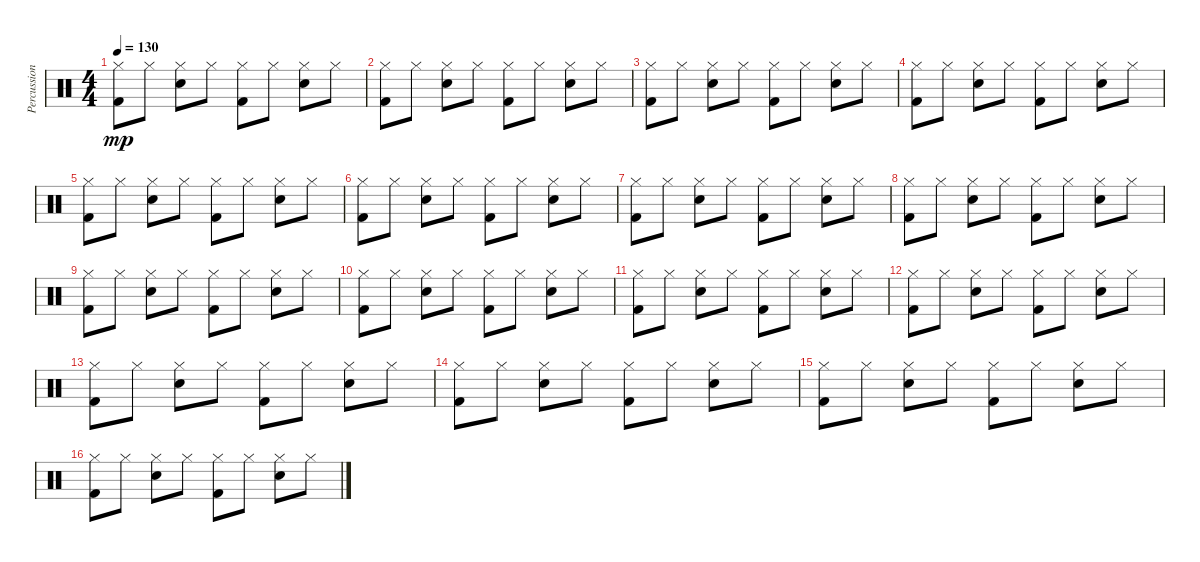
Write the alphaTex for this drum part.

\track ("Percussion" "Percussion") {instrument percussion}
\staff {score}
\articulation defaults
\ts (4 4)
\tempo 130
\clef neutral
\ks c
("Hi-Hat (closed)" "Kick (hit) 2").8{dy mp} "Hi-Hat (closed)".8 ("Hi-Hat (closed)" "Snare (hit) 2").8 "Hi-Hat (closed)".8 ("Hi-Hat (closed)" "Kick (hit) 2").8 "Hi-Hat (closed)".8 ("Hi-Hat (closed)" "Snare (hit) 2").8 "Hi-Hat (closed)".8 |
("Hi-Hat (closed)" "Kick (hit) 2").8 "Hi-Hat (closed)".8 ("Hi-Hat (closed)" "Snare (hit) 2").8 "Hi-Hat (closed)".8 ("Hi-Hat (closed)" "Kick (hit) 2").8 "Hi-Hat (closed)".8 ("Hi-Hat (closed)" "Snare (hit) 2").8 "Hi-Hat (closed)".8 |
("Hi-Hat (closed)" "Kick (hit) 2").8 "Hi-Hat (closed)".8 ("Hi-Hat (closed)" "Snare (hit) 2").8 "Hi-Hat (closed)".8 ("Hi-Hat (closed)" "Kick (hit) 2").8 "Hi-Hat (closed)".8 ("Hi-Hat (closed)" "Snare (hit) 2").8 "Hi-Hat (closed)".8 |
("Hi-Hat (closed)" "Kick (hit) 2").8 "Hi-Hat (closed)".8 ("Hi-Hat (closed)" "Snare (hit) 2").8 "Hi-Hat (closed)".8 ("Hi-Hat (closed)" "Kick (hit) 2").8 "Hi-Hat (closed)".8 ("Hi-Hat (closed)" "Snare (hit) 2").8 "Hi-Hat (closed)".8 |
("Hi-Hat (closed)" "Kick (hit) 2").8 "Hi-Hat (closed)".8 ("Hi-Hat (closed)" "Snare (hit) 2").8 "Hi-Hat (closed)".8 ("Hi-Hat (closed)" "Kick (hit) 2").8 "Hi-Hat (closed)".8 ("Hi-Hat (closed)" "Snare (hit) 2").8 "Hi-Hat (closed)".8 |
("Hi-Hat (closed)" "Kick (hit) 2").8 "Hi-Hat (closed)".8 ("Hi-Hat (closed)" "Snare (hit) 2").8 "Hi-Hat (closed)".8 ("Hi-Hat (closed)" "Kick (hit) 2").8 "Hi-Hat (closed)".8 ("Hi-Hat (closed)" "Snare (hit) 2").8 "Hi-Hat (closed)".8 |
("Hi-Hat (closed)" "Kick (hit) 2").8 "Hi-Hat (closed)".8 ("Hi-Hat (closed)" "Snare (hit) 2").8 "Hi-Hat (closed)".8 ("Hi-Hat (closed)" "Kick (hit) 2").8 "Hi-Hat (closed)".8 ("Hi-Hat (closed)" "Snare (hit) 2").8 "Hi-Hat (closed)".8 |
("Hi-Hat (closed)" "Kick (hit) 2").8 "Hi-Hat (closed)".8 ("Hi-Hat (closed)" "Snare (hit) 2").8 "Hi-Hat (closed)".8 ("Hi-Hat (closed)" "Kick (hit) 2").8 "Hi-Hat (closed)".8 ("Hi-Hat (closed)" "Snare (hit) 2").8 "Hi-Hat (closed)".8 |
("Hi-Hat (closed)" "Kick (hit) 2").8 "Hi-Hat (closed)".8 ("Hi-Hat (closed)" "Snare (hit) 2").8 "Hi-Hat (closed)".8 ("Hi-Hat (closed)" "Kick (hit) 2").8 "Hi-Hat (closed)".8 ("Hi-Hat (closed)" "Snare (hit) 2").8 "Hi-Hat (closed)".8 |
("Hi-Hat (closed)" "Kick (hit) 2").8 "Hi-Hat (closed)".8 ("Hi-Hat (closed)" "Snare (hit) 2").8 "Hi-Hat (closed)".8 ("Hi-Hat (closed)" "Kick (hit) 2").8 "Hi-Hat (closed)".8 ("Hi-Hat (closed)" "Snare (hit) 2").8 "Hi-Hat (closed)".8 |
("Hi-Hat (closed)" "Kick (hit) 2").8 "Hi-Hat (closed)".8 ("Hi-Hat (closed)" "Snare (hit) 2").8 "Hi-Hat (closed)".8 ("Hi-Hat (closed)" "Kick (hit) 2").8 "Hi-Hat (closed)".8 ("Hi-Hat (closed)" "Snare (hit) 2").8 "Hi-Hat (closed)".8 |
("Hi-Hat (closed)" "Kick (hit) 2").8 "Hi-Hat (closed)".8 ("Hi-Hat (closed)" "Snare (hit) 2").8 "Hi-Hat (closed)".8 ("Hi-Hat (closed)" "Kick (hit) 2").8 "Hi-Hat (closed)".8 ("Hi-Hat (closed)" "Snare (hit) 2").8 "Hi-Hat (closed)".8 |
("Hi-Hat (closed)" "Kick (hit) 2").8 "Hi-Hat (closed)".8 ("Hi-Hat (closed)" "Snare (hit) 2").8 "Hi-Hat (closed)".8 ("Hi-Hat (closed)" "Kick (hit) 2").8 "Hi-Hat (closed)".8 ("Hi-Hat (closed)" "Snare (hit) 2").8 "Hi-Hat (closed)".8 |
("Hi-Hat (closed)" "Kick (hit) 2").8 "Hi-Hat (closed)".8 ("Hi-Hat (closed)" "Snare (hit) 2").8 "Hi-Hat (closed)".8 ("Hi-Hat (closed)" "Kick (hit) 2").8 "Hi-Hat (closed)".8 ("Hi-Hat (closed)" "Snare (hit) 2").8 "Hi-Hat (closed)".8 |
("Hi-Hat (closed)" "Kick (hit) 2").8 "Hi-Hat (closed)".8 ("Hi-Hat (closed)" "Snare (hit) 2").8 "Hi-Hat (closed)".8 ("Hi-Hat (closed)" "Kick (hit) 2").8 "Hi-Hat (closed)".8 ("Hi-Hat (closed)" "Snare (hit) 2").8 "Hi-Hat (closed)".8 |
("Hi-Hat (closed)" "Kick (hit) 2").8 "Hi-Hat (closed)".8 ("Hi-Hat (closed)" "Snare (hit) 2").8 "Hi-Hat (closed)".8 ("Hi-Hat (closed)" "Kick (hit) 2").8 "Hi-Hat (closed)".8 ("Hi-Hat (closed)" "Snare (hit) 2").8 "Hi-Hat (closed)".8
